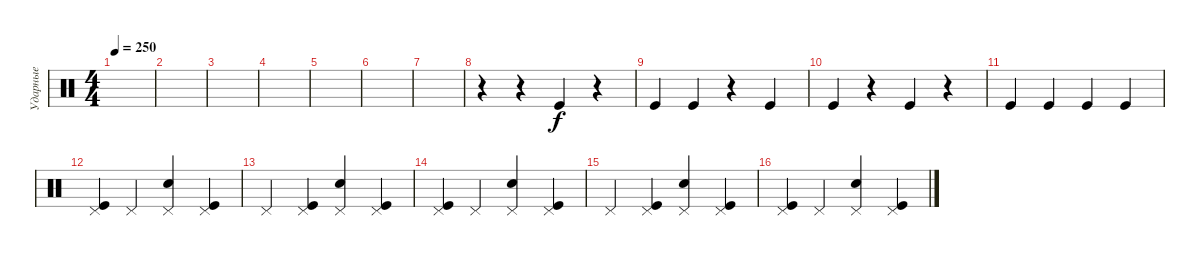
\track ("Ударные" "Ударные") {instrument percussion}
\staff {score}
\articulation defaults
\ts (4 4)
\tempo 250
\clef neutral
\ks c
|
|
|
|
|
|
|
r.4 r.4 "Kick (hit)".4 r.4 |
"Kick (hit)".4 "Kick (hit)".4 r.4 "Kick (hit)".4 |
"Kick (hit)".4 r.4 "Kick (hit)".4 r.4 |
"Kick (hit)".4 "Kick (hit)".4 "Kick (hit)".4 "Kick (hit)".4 |
("Kick (hit)" "Pedal Hi-Hat (hit)").4 "Pedal Hi-Hat (hit)".4 ("Electric Snare (hit)" "Pedal Hi-Hat (hit)").4 ("Kick (hit)" "Pedal Hi-Hat (hit)").4 |
"Pedal Hi-Hat (hit)".4 ("Kick (hit)" "Pedal Hi-Hat (hit)").4 ("Electric Snare (hit)" "Pedal Hi-Hat (hit)").4 ("Kick (hit)" "Pedal Hi-Hat (hit)").4 |
("Kick (hit)" "Pedal Hi-Hat (hit)").4 "Pedal Hi-Hat (hit)".4 ("Electric Snare (hit)" "Pedal Hi-Hat (hit)").4 ("Kick (hit)" "Pedal Hi-Hat (hit)").4 |
"Pedal Hi-Hat (hit)".4 ("Kick (hit)" "Pedal Hi-Hat (hit)").4 ("Electric Snare (hit)" "Pedal Hi-Hat (hit)").4 ("Kick (hit)" "Pedal Hi-Hat (hit)").4 |
("Kick (hit)" "Pedal Hi-Hat (hit)").4 "Pedal Hi-Hat (hit)".4 ("Electric Snare (hit)" "Pedal Hi-Hat (hit)").4 ("Kick (hit)" "Pedal Hi-Hat (hit)").4
